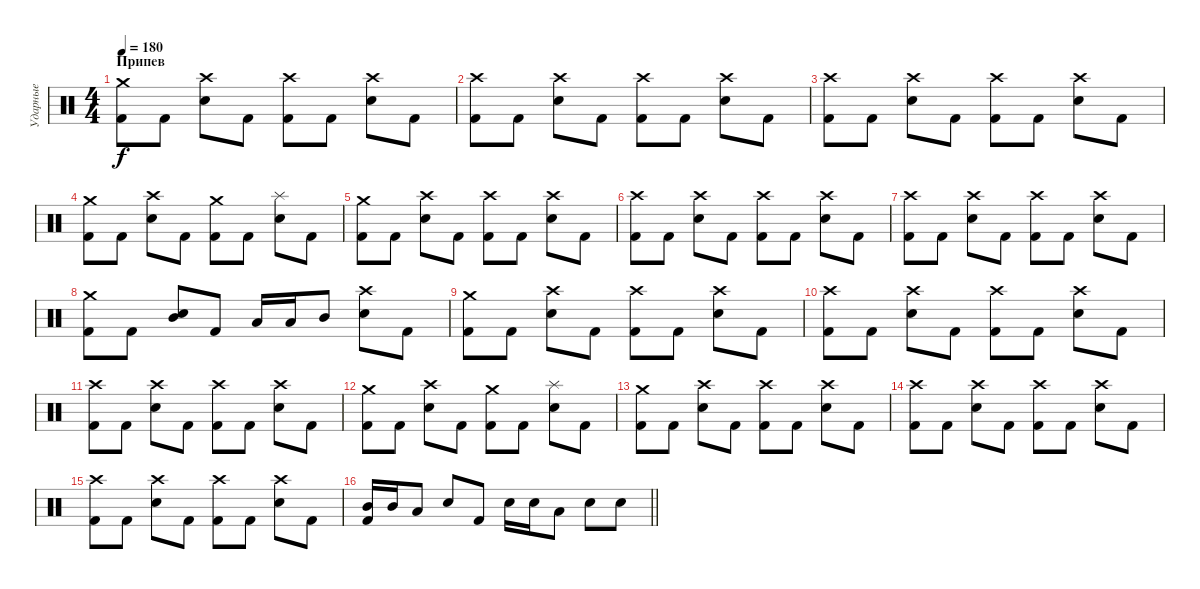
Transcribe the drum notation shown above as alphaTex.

\track ("Ударные" "Ударные") {instrument percussion}
\staff {score}
\articulation defaults
\ts (4 4)
\section ("" "Припев")
\tempo 180
\clef neutral
\ks c
("Crash medium (hit)" "Kick (hit) 2").8{dy f} "Kick (hit) 2".8 ("Crash high (hit)" "Snare (hit) 2").8 "Kick (hit) 2".8 ("Crash high (hit)" "Kick (hit) 2").8 "Kick (hit) 2".8 ("Crash high (hit)" "Snare (hit) 2").8 "Kick (hit) 2".8 |
("Crash high (hit)" "Kick (hit) 2").8 "Kick (hit) 2".8 ("Crash high (hit)" "Snare (hit) 2").8 "Kick (hit) 2".8 ("Crash high (hit)" "Kick (hit) 2").8 "Kick (hit) 2".8 ("Crash high (hit)" "Snare (hit) 2").8 "Kick (hit) 2".8 |
("Crash high (hit)" "Kick (hit) 2").8 "Kick (hit) 2".8 ("Crash high (hit)" "Snare (hit) 2").8 "Kick (hit) 2".8 ("Crash high (hit)" "Kick (hit) 2").8 "Kick (hit) 2".8 ("Crash high (hit)" "Snare (hit) 2").8 "Kick (hit) 2".8 |
("Crash medium (hit)" "Kick (hit) 2").8 "Kick (hit) 2".8 ("Crash high (hit)" "Snare (hit) 2").8 "Kick (hit) 2".8 ("Crash medium (hit)" "Kick (hit) 2").8 "Kick (hit) 2".8 ("Splash (hit)" "Snare (hit) 2").8 "Kick (hit) 2".8 |
("Crash medium (hit)" "Kick (hit) 2").8 "Kick (hit) 2".8 ("Crash high (hit)" "Snare (hit) 2").8 "Kick (hit) 2".8 ("Crash high (hit)" "Kick (hit) 2").8 "Kick (hit) 2".8 ("Crash high (hit)" "Snare (hit) 2").8 "Kick (hit) 2".8 |
("Crash high (hit)" "Kick (hit) 2").8 "Kick (hit) 2".8 ("Crash high (hit)" "Snare (hit) 2").8 "Kick (hit) 2".8 ("Crash high (hit)" "Kick (hit) 2").8 "Kick (hit) 2".8 ("Crash high (hit)" "Snare (hit) 2").8 "Kick (hit) 2".8 |
("Crash high (hit)" "Kick (hit) 2").8 "Kick (hit) 2".8 ("Crash high (hit)" "Snare (hit) 2").8 "Kick (hit) 2".8 ("Crash high (hit)" "Kick (hit) 2").8 "Kick (hit) 2".8 ("Crash high (hit)" "Snare (hit) 2").8 "Kick (hit) 2".8 |
("Crash medium (hit)" "Kick (hit) 2").8 "Kick (hit) 2".8 ("Mid Tom (hit)" "Snare (hit) 2").8 "Kick (hit) 2".8 "Low Floor Tom (hit)".16 "Low Floor Tom (hit)".16 "Mid Tom (hit)".8 ("Crash high (hit)" "Snare (hit) 2").8 "Kick (hit) 2".8 |
("Crash medium (hit)" "Kick (hit) 2").8 "Kick (hit) 2".8 ("Crash high (hit)" "Snare (hit) 2").8 "Kick (hit) 2".8 ("Crash high (hit)" "Kick (hit) 2").8 "Kick (hit) 2".8 ("Crash high (hit)" "Snare (hit) 2").8 "Kick (hit) 2".8 |
("Crash high (hit)" "Kick (hit) 2").8 "Kick (hit) 2".8 ("Crash high (hit)" "Snare (hit) 2").8 "Kick (hit) 2".8 ("Crash high (hit)" "Kick (hit) 2").8 "Kick (hit) 2".8 ("Crash high (hit)" "Snare (hit) 2").8 "Kick (hit) 2".8 |
("Crash high (hit)" "Kick (hit) 2").8 "Kick (hit) 2".8 ("Crash high (hit)" "Snare (hit) 2").8 "Kick (hit) 2".8 ("Crash high (hit)" "Kick (hit) 2").8 "Kick (hit) 2".8 ("Crash high (hit)" "Snare (hit) 2").8 "Kick (hit) 2".8 |
("Crash medium (hit)" "Kick (hit) 2").8 "Kick (hit) 2".8 ("Crash high (hit)" "Snare (hit) 2").8 "Kick (hit) 2".8 ("Crash medium (hit)" "Kick (hit) 2").8 "Kick (hit) 2".8 ("Splash (hit)" "Snare (hit) 2").8 "Kick (hit) 2".8 |
("Crash medium (hit)" "Kick (hit) 2").8 "Kick (hit) 2".8 ("Crash high (hit)" "Snare (hit) 2").8 "Kick (hit) 2".8 ("Crash high (hit)" "Kick (hit) 2").8 "Kick (hit) 2".8 ("Crash high (hit)" "Snare (hit) 2").8 "Kick (hit) 2".8 |
("Crash high (hit)" "Kick (hit) 2").8 "Kick (hit) 2".8 ("Crash high (hit)" "Snare (hit) 2").8 "Kick (hit) 2".8 ("Crash high (hit)" "Kick (hit) 2").8 "Kick (hit) 2".8 ("Crash high (hit)" "Snare (hit) 2").8 "Kick (hit) 2".8 |
("Crash high (hit)" "Kick (hit) 2").8 "Kick (hit) 2".8 ("Crash high (hit)" "Snare (hit) 2").8 "Kick (hit) 2".8 ("Crash high (hit)" "Kick (hit) 2").8 "Kick (hit) 2".8 ("Crash high (hit)" "Snare (hit) 2").8 "Kick (hit) 2".8 |
\barLineRight lightlight
("Mid Tom (hit)" "Kick (hit) 2").16 "Mid Tom (hit)".16 "Low Tom (hit)".8 "Snare (hit) 2".8 "Kick (hit) 2".8 "Snare (hit) 2".16 "Snare (hit) 2".16 "Low Tom (hit)".8 "Snare (hit) 2".8 "Snare (hit) 2".8
